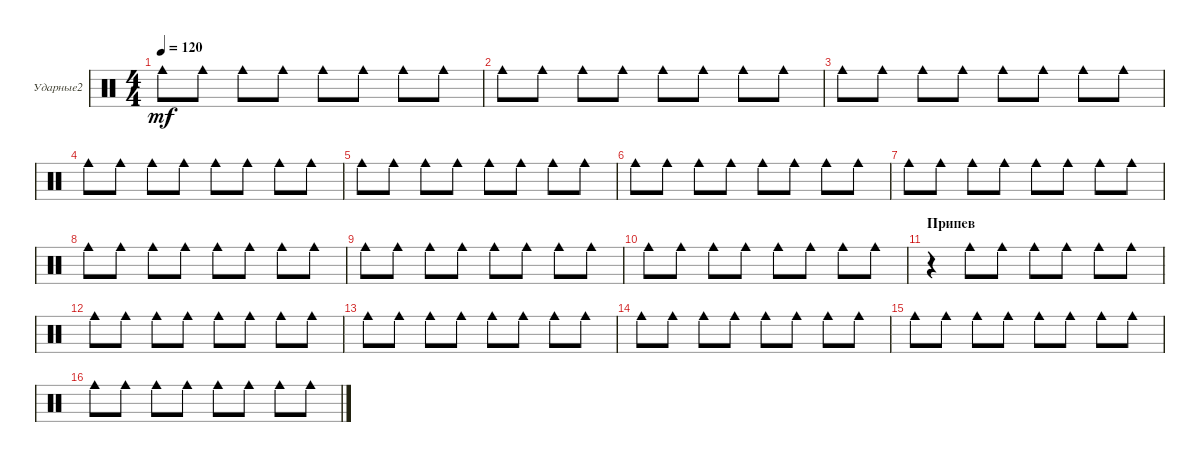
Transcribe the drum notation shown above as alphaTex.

\defaultSystemsLayout 4
\bracketExtendMode groupsimilarinstruments
\firstSystemTrackNameOrientation horizontal
\otherSystemsTrackNameOrientation horizontal
\track ("Е.Кулаков" "Ударные2") {instrument percussion}
\staff {score}
\articulation defaults
\ts (4 4)
\tempo 120
\clef neutral
\ks c "Cowbell medium (hit)".8{dy mf} "Cowbell medium (hit)".8 "Cowbell medium (hit)".8 "Cowbell medium (hit)".8 "Cowbell medium (hit)".8 "Cowbell medium (hit)".8 "Cowbell medium (hit)".8 "Cowbell medium (hit)".8
|
"Cowbell medium (hit)".8 "Cowbell medium (hit)".8 "Cowbell medium (hit)".8 "Cowbell medium (hit)".8 "Cowbell medium (hit)".8 "Cowbell medium (hit)".8 "Cowbell medium (hit)".8 "Cowbell medium (hit)".8 |
"Cowbell medium (hit)".8 "Cowbell medium (hit)".8 "Cowbell medium (hit)".8 "Cowbell medium (hit)".8 "Cowbell medium (hit)".8 "Cowbell medium (hit)".8 "Cowbell medium (hit)".8 "Cowbell medium (hit)".8 |
"Cowbell medium (hit)".8 "Cowbell medium (hit)".8 "Cowbell medium (hit)".8 "Cowbell medium (hit)".8 "Cowbell medium (hit)".8 "Cowbell medium (hit)".8 "Cowbell medium (hit)".8 "Cowbell medium (hit)".8 |
"Cowbell medium (hit)".8 "Cowbell medium (hit)".8 "Cowbell medium (hit)".8 "Cowbell medium (hit)".8 "Cowbell medium (hit)".8 "Cowbell medium (hit)".8 "Cowbell medium (hit)".8 "Cowbell medium (hit)".8 |
"Cowbell medium (hit)".8 "Cowbell medium (hit)".8 "Cowbell medium (hit)".8 "Cowbell medium (hit)".8 "Cowbell medium (hit)".8 "Cowbell medium (hit)".8 "Cowbell medium (hit)".8 "Cowbell medium (hit)".8 |
"Cowbell medium (hit)".8 "Cowbell medium (hit)".8 "Cowbell medium (hit)".8 "Cowbell medium (hit)".8 "Cowbell medium (hit)".8 "Cowbell medium (hit)".8 "Cowbell medium (hit)".8 "Cowbell medium (hit)".8 |
"Cowbell medium (hit)".8 "Cowbell medium (hit)".8 "Cowbell medium (hit)".8 "Cowbell medium (hit)".8 "Cowbell medium (hit)".8 "Cowbell medium (hit)".8 "Cowbell medium (hit)".8 "Cowbell medium (hit)".8 |
"Cowbell medium (hit)".8 "Cowbell medium (hit)".8 "Cowbell medium (hit)".8 "Cowbell medium (hit)".8 "Cowbell medium (hit)".8 "Cowbell medium (hit)".8 "Cowbell medium (hit)".8 "Cowbell medium (hit)".8 |
"Cowbell medium (hit)".8 "Cowbell medium (hit)".8 "Cowbell medium (hit)".8 "Cowbell medium (hit)".8 "Cowbell medium (hit)".8 "Cowbell medium (hit)".8 "Cowbell medium (hit)".8 "Cowbell medium (hit)".8 |
\section ("" "Припев")
r.4 "Cowbell medium (hit)".8 "Cowbell medium (hit)".8 "Cowbell medium (hit)".8 "Cowbell medium (hit)".8 "Cowbell medium (hit)".8 "Cowbell medium (hit)".8 |
"Cowbell medium (hit)".8 "Cowbell medium (hit)".8 "Cowbell medium (hit)".8 "Cowbell medium (hit)".8 "Cowbell medium (hit)".8 "Cowbell medium (hit)".8 "Cowbell medium (hit)".8 "Cowbell medium (hit)".8 |
"Cowbell medium (hit)".8 "Cowbell medium (hit)".8 "Cowbell medium (hit)".8 "Cowbell medium (hit)".8 "Cowbell medium (hit)".8 "Cowbell medium (hit)".8 "Cowbell medium (hit)".8 "Cowbell medium (hit)".8 |
"Cowbell medium (hit)".8 "Cowbell medium (hit)".8 "Cowbell medium (hit)".8 "Cowbell medium (hit)".8 "Cowbell medium (hit)".8 "Cowbell medium (hit)".8 "Cowbell medium (hit)".8 "Cowbell medium (hit)".8 |
"Cowbell medium (hit)".8 "Cowbell medium (hit)".8 "Cowbell medium (hit)".8 "Cowbell medium (hit)".8 "Cowbell medium (hit)".8 "Cowbell medium (hit)".8 "Cowbell medium (hit)".8 "Cowbell medium (hit)".8 |
"Cowbell medium (hit)".8 "Cowbell medium (hit)".8 "Cowbell medium (hit)".8 "Cowbell medium (hit)".8 "Cowbell medium (hit)".8 "Cowbell medium (hit)".8 "Cowbell medium (hit)".8 "Cowbell medium (hit)".8
